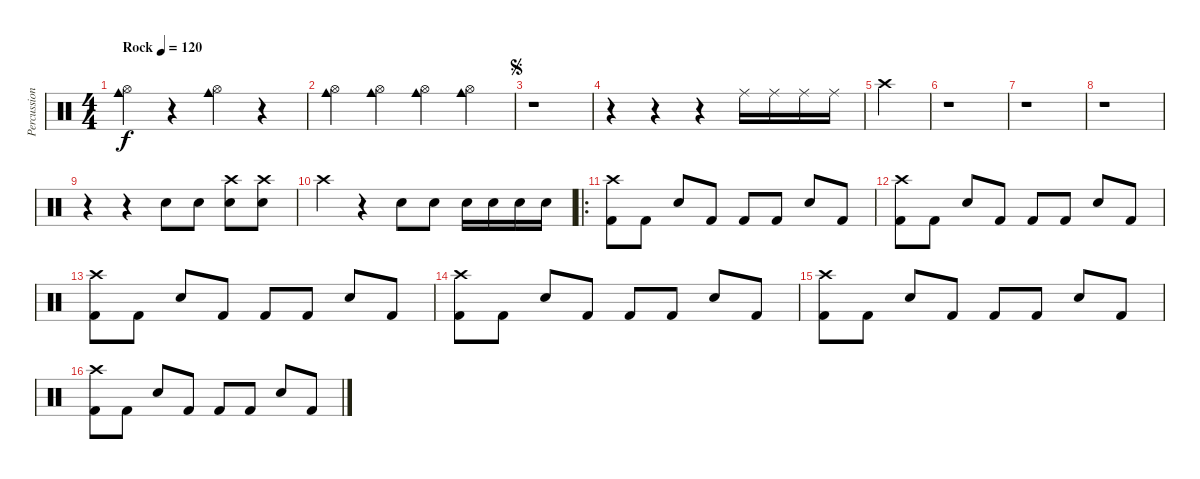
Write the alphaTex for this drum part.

\track ("Percussion" "Percussion") {instrument percussion}
\staff {score}
\articulation defaults
\ts (4 4)
\tempo (120 "Rock")
\clef neutral
\ks c
("Cowbell medium (hit)" "Hi-Hat (open)").4{dy f} r.4 ("Cowbell medium (hit)" "Hi-Hat (open)").4 r.4 |
("Cowbell medium (hit)" "Hi-Hat (open)").4 ("Cowbell medium (hit)" "Hi-Hat (open)").4 ("Cowbell medium (hit)" "Hi-Hat (open)").4 ("Cowbell medium (hit)" "Hi-Hat (open)").4 |
\jump segno
r.1 |
r.4 r.4 r.4 "Ride (middle)".16 "Ride (middle)".16 "Ride (middle)".16 "Ride (middle)".16 |
"Crash high (hit)".4 |
r.1 |
r.1 |
r.1 |
r.4 r.4 "Snare (hit) 2".8 "Snare (hit) 2".8 ("Snare (hit) 2" "Crash high (hit)").8 ("Snare (hit) 2" "Crash high (hit)").8 |
"Crash high (hit)".4 r.4 "Snare (hit) 2".8 "Snare (hit) 2".8 "Snare (hit) 2".16 "Snare (hit) 2".16 "Snare (hit) 2".16 "Snare (hit) 2".16 |
\ro
("Kick (hit) 2" "Crash high (hit)").8 "Kick (hit) 2".8 "Snare (hit) 2".8 "Kick (hit) 2".8 "Kick (hit) 2".8 "Kick (hit) 2".8 "Snare (hit) 2".8 "Kick (hit) 2".8 |
("Kick (hit) 2" "Crash high (hit)").8 "Kick (hit) 2".8 "Snare (hit) 2".8 "Kick (hit) 2".8 "Kick (hit) 2".8 "Kick (hit) 2".8 "Snare (hit) 2".8 "Kick (hit) 2".8 |
("Kick (hit) 2" "Crash high (hit)").8 "Kick (hit) 2".8 "Snare (hit) 2".8 "Kick (hit) 2".8 "Kick (hit) 2".8 "Kick (hit) 2".8 "Snare (hit) 2".8 "Kick (hit) 2".8 |
("Kick (hit) 2" "Crash high (hit)").8 "Kick (hit) 2".8 "Snare (hit) 2".8 "Kick (hit) 2".8 "Kick (hit) 2".8 "Kick (hit) 2".8 "Snare (hit) 2".8 "Kick (hit) 2".8 |
("Kick (hit) 2" "Crash high (hit)").8 "Kick (hit) 2".8 "Snare (hit) 2".8 "Kick (hit) 2".8 "Kick (hit) 2".8 "Kick (hit) 2".8 "Snare (hit) 2".8 "Kick (hit) 2".8 |
("Kick (hit) 2" "Crash high (hit)").8 "Kick (hit) 2".8 "Snare (hit) 2".8 "Kick (hit) 2".8 "Kick (hit) 2".8 "Kick (hit) 2".8 "Snare (hit) 2".8 "Kick (hit) 2".8
